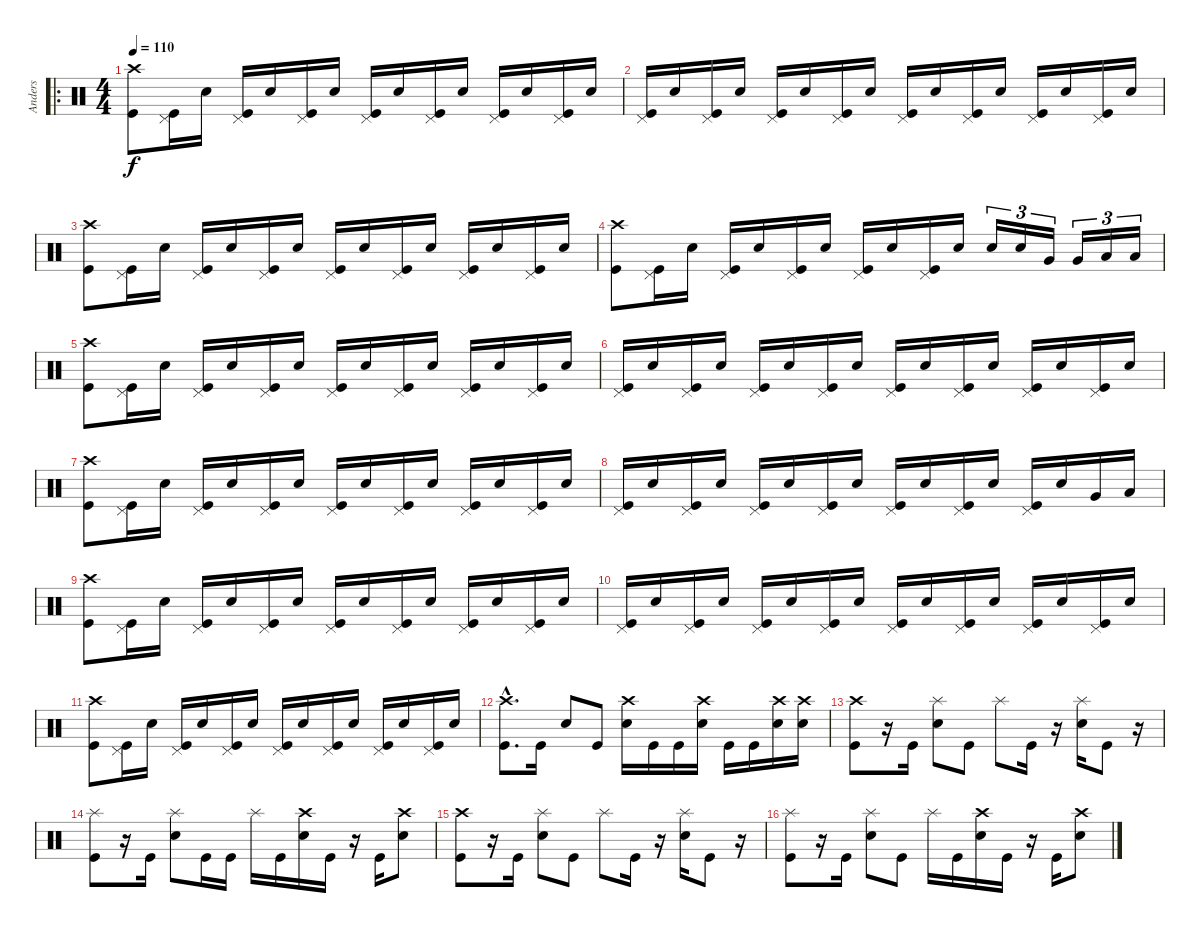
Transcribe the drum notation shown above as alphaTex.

\track ("Anders" "Anders") {instrument percussion}
\staff {score}
\articulation defaults
\ro
\ts (4 4)
\tempo 110
\clef neutral
\ks c
("Crash high (hit)" "Kick (hit)").8{dy f} ("Pedal Hi-Hat (hit)" "Kick (hit)").16 "Snare (hit) 2".16 ("Pedal Hi-Hat (hit)" "Kick (hit)").16 "Snare (hit) 2".16 ("Pedal Hi-Hat (hit)" "Kick (hit)").16 "Snare (hit) 2".16 ("Pedal Hi-Hat (hit)" "Kick (hit)").16 "Snare (hit) 2".16 ("Pedal Hi-Hat (hit)" "Kick (hit)").16 "Snare (hit) 2".16 ("Pedal Hi-Hat (hit)" "Kick (hit)").16 "Snare (hit) 2".16 ("Pedal Hi-Hat (hit)" "Kick (hit)").16 "Snare (hit) 2".16 |
("Pedal Hi-Hat (hit)" "Kick (hit)").16 "Snare (hit) 2".16 ("Pedal Hi-Hat (hit)" "Kick (hit)").16 "Snare (hit) 2".16 ("Pedal Hi-Hat (hit)" "Kick (hit)").16 "Snare (hit) 2".16 ("Pedal Hi-Hat (hit)" "Kick (hit)").16 "Snare (hit) 2".16 ("Pedal Hi-Hat (hit)" "Kick (hit)").16 "Snare (hit) 2".16 ("Pedal Hi-Hat (hit)" "Kick (hit)").16 "Snare (hit) 2".16 ("Pedal Hi-Hat (hit)" "Kick (hit)").16 "Snare (hit) 2".16 ("Pedal Hi-Hat (hit)" "Kick (hit)").16 "Snare (hit) 2".16 |
("Crash high (hit)" "Kick (hit)").8 ("Pedal Hi-Hat (hit)" "Kick (hit)").16 "Snare (hit) 2".16 ("Pedal Hi-Hat (hit)" "Kick (hit)").16 "Snare (hit) 2".16 ("Pedal Hi-Hat (hit)" "Kick (hit)").16 "Snare (hit) 2".16 ("Pedal Hi-Hat (hit)" "Kick (hit)").16 "Snare (hit) 2".16 ("Pedal Hi-Hat (hit)" "Kick (hit)").16 "Snare (hit) 2".16 ("Pedal Hi-Hat (hit)" "Kick (hit)").16 "Snare (hit) 2".16 ("Pedal Hi-Hat (hit)" "Kick (hit)").16 "Snare (hit) 2".16 |
("Crash high (hit)" "Kick (hit)").8 ("Pedal Hi-Hat (hit)" "Kick (hit)").16 "Snare (hit) 2".16 ("Pedal Hi-Hat (hit)" "Kick (hit)").16 "Snare (hit) 2".16 ("Pedal Hi-Hat (hit)" "Kick (hit)").16 "Snare (hit) 2".16 ("Pedal Hi-Hat (hit)" "Kick (hit)").16 "Snare (hit) 2".16 ("Pedal Hi-Hat (hit)" "Kick (hit)").16 "Snare (hit) 2".16 "Snare (hit) 2".16{tu (3 2)} "Snare (hit) 2".16{tu (3 2)} "Very Low Tom (hit)".16{tu (3 2)} "Very Low Tom (hit)".16{tu (3 2)} "Low Floor Tom (hit)".16{tu (3 2)} "Low Floor Tom (hit)".16{tu (3 2)} |
("Crash high (hit)" "Kick (hit)").8 ("Pedal Hi-Hat (hit)" "Kick (hit)").16 "Snare (hit) 2".16 ("Pedal Hi-Hat (hit)" "Kick (hit)").16 "Snare (hit) 2".16 ("Pedal Hi-Hat (hit)" "Kick (hit)").16 "Snare (hit) 2".16 ("Pedal Hi-Hat (hit)" "Kick (hit)").16 "Snare (hit) 2".16 ("Pedal Hi-Hat (hit)" "Kick (hit)").16 "Snare (hit) 2".16 ("Pedal Hi-Hat (hit)" "Kick (hit)").16 "Snare (hit) 2".16 ("Pedal Hi-Hat (hit)" "Kick (hit)").16 "Snare (hit) 2".16 |
("Pedal Hi-Hat (hit)" "Kick (hit)").16 "Snare (hit) 2".16 ("Pedal Hi-Hat (hit)" "Kick (hit)").16 "Snare (hit) 2".16 ("Pedal Hi-Hat (hit)" "Kick (hit)").16 "Snare (hit) 2".16 ("Pedal Hi-Hat (hit)" "Kick (hit)").16 "Snare (hit) 2".16 ("Pedal Hi-Hat (hit)" "Kick (hit)").16 "Snare (hit) 2".16 ("Pedal Hi-Hat (hit)" "Kick (hit)").16 "Snare (hit) 2".16 ("Pedal Hi-Hat (hit)" "Kick (hit)").16 "Snare (hit) 2".16 ("Pedal Hi-Hat (hit)" "Kick (hit)").16 "Snare (hit) 2".16 |
("Crash high (hit)" "Kick (hit)").8 ("Pedal Hi-Hat (hit)" "Kick (hit)").16 "Snare (hit) 2".16 ("Pedal Hi-Hat (hit)" "Kick (hit)").16 "Snare (hit) 2".16 ("Pedal Hi-Hat (hit)" "Kick (hit)").16 "Snare (hit) 2".16 ("Pedal Hi-Hat (hit)" "Kick (hit)").16 "Snare (hit) 2".16 ("Pedal Hi-Hat (hit)" "Kick (hit)").16 "Snare (hit) 2".16 ("Pedal Hi-Hat (hit)" "Kick (hit)").16 "Snare (hit) 2".16 ("Pedal Hi-Hat (hit)" "Kick (hit)").16 "Snare (hit) 2".16 |
("Pedal Hi-Hat (hit)" "Kick (hit)").16 "Snare (hit) 2".16 ("Pedal Hi-Hat (hit)" "Kick (hit)").16 "Snare (hit) 2".16 ("Pedal Hi-Hat (hit)" "Kick (hit)").16 "Snare (hit) 2".16 ("Pedal Hi-Hat (hit)" "Kick (hit)").16 "Snare (hit) 2".16 ("Pedal Hi-Hat (hit)" "Kick (hit)").16 "Snare (hit) 2".16 ("Pedal Hi-Hat (hit)" "Kick (hit)").16 "Snare (hit) 2".16 ("Pedal Hi-Hat (hit)" "Kick (hit)").16 "Snare (hit) 2".16 "Very Low Tom (hit)".16 "Low Floor Tom (hit)".16 |
("Crash high (hit)" "Kick (hit)").8 ("Pedal Hi-Hat (hit)" "Kick (hit)").16 "Snare (hit) 2".16 ("Pedal Hi-Hat (hit)" "Kick (hit)").16 "Snare (hit) 2".16 ("Pedal Hi-Hat (hit)" "Kick (hit)").16 "Snare (hit) 2".16 ("Pedal Hi-Hat (hit)" "Kick (hit)").16 "Snare (hit) 2".16 ("Pedal Hi-Hat (hit)" "Kick (hit)").16 "Snare (hit) 2".16 ("Pedal Hi-Hat (hit)" "Kick (hit)").16 "Snare (hit) 2".16 ("Pedal Hi-Hat (hit)" "Kick (hit)").16 "Snare (hit) 2".16 |
("Pedal Hi-Hat (hit)" "Kick (hit)").16 "Snare (hit) 2".16 ("Pedal Hi-Hat (hit)" "Kick (hit)").16 "Snare (hit) 2".16 ("Pedal Hi-Hat (hit)" "Kick (hit)").16 "Snare (hit) 2".16 ("Pedal Hi-Hat (hit)" "Kick (hit)").16 "Snare (hit) 2".16 ("Pedal Hi-Hat (hit)" "Kick (hit)").16 "Snare (hit) 2".16 ("Pedal Hi-Hat (hit)" "Kick (hit)").16 "Snare (hit) 2".16 ("Pedal Hi-Hat (hit)" "Kick (hit)").16 "Snare (hit) 2".16 ("Pedal Hi-Hat (hit)" "Kick (hit)").16 "Snare (hit) 2".16 |
("Crash high (hit)" "Kick (hit)").8 ("Pedal Hi-Hat (hit)" "Kick (hit)").16 "Snare (hit) 2".16 ("Pedal Hi-Hat (hit)" "Kick (hit)").16 "Snare (hit) 2".16 ("Pedal Hi-Hat (hit)" "Kick (hit)").16 "Snare (hit) 2".16 ("Pedal Hi-Hat (hit)" "Kick (hit)").16 "Snare (hit) 2".16 ("Pedal Hi-Hat (hit)" "Kick (hit)").16 "Snare (hit) 2".16 ("Pedal Hi-Hat (hit)" "Kick (hit)").16 "Snare (hit) 2".16 ("Pedal Hi-Hat (hit)" "Kick (hit)").16 "Snare (hit) 2".16 |
("Crash high (hit)"{hac} "Kick (hit)"{hac}).8{d} "Kick (hit)".16 "Snare (hit) 2".8 "Kick (hit)".8 ("Crash high (hit)" "Snare (hit) 2").16 "Kick (hit)".16 "Kick (hit)".16 ("Crash high (hit)" "Snare (hit) 2").16 "Kick (hit)".16 "Kick (hit)".16 ("Crash high (hit)" "Snare (hit) 2").16 ("Crash high (hit)" "Snare (hit) 2").16 |
("Crash high (hit)" "Kick (hit)").8 r.16 "Kick (hit)".16 ("Splash (hit)" "Snare (hit) 2").8 "Kick (hit)".8 "Splash (hit)".8 "Kick (hit)".16 r.16 ("Splash (hit)" "Snare (hit) 2").16 "Kick (hit)".8 r.16 |
("Splash (hit)" "Kick (hit)").8 r.16 "Kick (hit)".16 ("Splash (hit)" "Snare (hit) 2").8 "Kick (hit)".16 "Kick (hit)".16 "Splash (hit)".16 "Kick (hit)".16 ("Crash high (hit)" "Snare (hit) 2").16 "Kick (hit)".16 r.16 "Kick (hit)".16 ("Crash high (hit)" "Snare (hit) 2").8 |
("Crash high (hit)" "Kick (hit)").8 r.16 "Kick (hit)".16 ("Splash (hit)" "Snare (hit) 2").8 "Kick (hit)".8 "Splash (hit)".8 "Kick (hit)".16 r.16 ("Splash (hit)" "Snare (hit) 2").16 "Kick (hit)".8 r.16 |
("Splash (hit)" "Kick (hit)").8 r.16 "Kick (hit)".16 ("Splash (hit)" "Snare (hit) 2").8 "Kick (hit)".8 "Splash (hit)".16 "Kick (hit)".16 ("Crash high (hit)" "Snare (hit) 2").16 "Kick (hit)".16 r.16 "Kick (hit)".16 ("Crash high (hit)" "Snare (hit) 2").8
